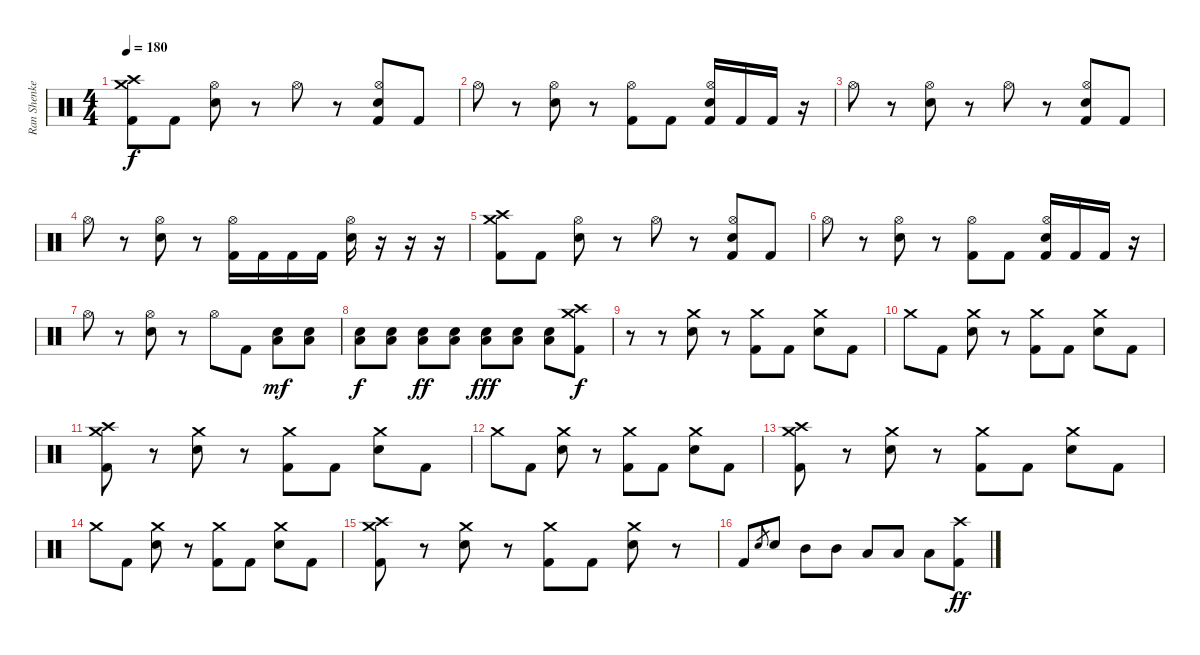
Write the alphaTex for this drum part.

\track ("Ran Shenkerman" "Ran Shenke") {instrument percussion}
\staff {score}
\articulation defaults
\ts (4 4)
\tempo 180
\clef neutral
\ks c
("Crash medium (hit)" "Crash high (hit)" "Kick (hit) 2").8{dy f} "Kick (hit) 2".8 ("Hi-Hat (open)" "Snare (hit) 2").8 r.8 "Hi-Hat (open)".8 r.8 ("Hi-Hat (open)" "Snare (hit) 2" "Kick (hit) 2").8 "Kick (hit) 2".8 |
"Hi-Hat (open)".8 r.8 ("Hi-Hat (open)" "Snare (hit) 2").8 r.8 ("Hi-Hat (open)" "Kick (hit) 2").8 "Kick (hit) 2".8 ("Hi-Hat (open)" "Snare (hit) 2" "Kick (hit) 2").16 "Kick (hit) 2".16 "Kick (hit) 2".16 r.16 |
"Hi-Hat (open)".8 r.8 ("Hi-Hat (open)" "Snare (hit) 2").8 r.8 "Hi-Hat (open)".8 r.8 ("Hi-Hat (open)" "Snare (hit) 2" "Kick (hit) 2").8 "Kick (hit) 2".8 |
"Hi-Hat (open)".8 r.8 ("Hi-Hat (open)" "Snare (hit) 2").8 r.8 ("Hi-Hat (open)" "Kick (hit) 2").16 "Kick (hit) 2".16 "Kick (hit) 2".16 "Kick (hit) 2".16 ("Hi-Hat (open)" "Snare (hit) 2").16 r.16 r.16 r.16 |
("Crash medium (hit)" "Crash high (hit)" "Kick (hit) 2").8 "Kick (hit) 2".8 ("Hi-Hat (open)" "Snare (hit) 2").8 r.8 "Hi-Hat (open)".8 r.8 ("Hi-Hat (open)" "Snare (hit) 2" "Kick (hit) 2").8 "Kick (hit) 2".8 |
"Hi-Hat (open)".8 r.8 ("Hi-Hat (open)" "Snare (hit) 2").8 r.8 ("Hi-Hat (open)" "Kick (hit) 2").8 "Kick (hit) 2".8 ("Hi-Hat (open)" "Snare (hit) 2" "Kick (hit) 2").16 "Kick (hit) 2".16 "Kick (hit) 2".16 r.16 |
"Hi-Hat (open)".8 r.8 ("Hi-Hat (open)" "Snare (hit) 2").8 r.8 "Hi-Hat (open)".8 "Kick (hit) 2".8 ("Snare (hit) 2" "Low Floor Tom (hit)").8{dy mf} ("Snare (hit) 2" "Low Floor Tom (hit)").8 |
("Snare (hit) 2" "Low Floor Tom (hit)").8{dy f} ("Snare (hit) 2" "Low Floor Tom (hit)").8 ("Snare (hit) 2" "Low Floor Tom (hit)").8{dy ff} ("Snare (hit) 2" "Low Floor Tom (hit)").8 ("Snare (hit) 2" "Low Floor Tom (hit)").8{dy fff} ("Snare (hit) 2" "Low Floor Tom (hit)").8 ("Snare (hit) 2" "Low Floor Tom (hit)").8 ("Crash medium (hit)" "Crash high (hit)" "Kick (hit) 2").8{dy f} |
r.8 r.8 ("Crash medium (hit)" "Snare (hit) 2").8 r.8 ("Crash medium (hit)" "Kick (hit) 2").8 "Kick (hit) 2".8 ("Crash medium (hit)" "Snare (hit) 2").8 "Kick (hit) 2".8 |
"Crash medium (hit)".8 "Kick (hit) 2".8 ("Crash medium (hit)" "Snare (hit) 2").8 r.8 ("Crash medium (hit)" "Kick (hit) 2").8 "Kick (hit) 2".8 ("Crash medium (hit)" "Snare (hit) 2").8 "Kick (hit) 2".8 |
("Crash medium (hit)" "Crash high (hit)" "Kick (hit) 2").8 r.8 ("Crash medium (hit)" "Snare (hit) 2").8 r.8 ("Crash medium (hit)" "Kick (hit) 2").8 "Kick (hit) 2".8 ("Crash medium (hit)" "Snare (hit) 2").8 "Kick (hit) 2".8 |
"Crash medium (hit)".8 "Kick (hit) 2".8 ("Crash medium (hit)" "Snare (hit) 2").8 r.8 ("Crash medium (hit)" "Kick (hit) 2").8 "Kick (hit) 2".8 ("Crash medium (hit)" "Snare (hit) 2").8 "Kick (hit) 2".8 |
("Crash medium (hit)" "Crash high (hit)" "Kick (hit) 2").8 r.8 ("Crash medium (hit)" "Snare (hit) 2").8 r.8 ("Crash medium (hit)" "Kick (hit) 2").8 "Kick (hit) 2".8 ("Crash medium (hit)" "Snare (hit) 2").8 "Kick (hit) 2".8 |
"Crash medium (hit)".8 "Kick (hit) 2".8 ("Crash medium (hit)" "Snare (hit) 2").8 r.8 ("Crash medium (hit)" "Kick (hit) 2").8 "Kick (hit) 2".8 ("Crash medium (hit)" "Snare (hit) 2").8 "Kick (hit) 2".8 |
("Crash medium (hit)" "Crash high (hit)" "Kick (hit) 2").8 r.8 ("Crash medium (hit)" "Snare (hit) 2").8 r.8 ("Crash medium (hit)" "Kick (hit) 2").8 "Kick (hit) 2".8 ("Crash medium (hit)" "Snare (hit) 2").8 r.8 |
"Kick (hit) 2".8 "Snare (hit) 2".8{gr} "Snare (hit) 2".8 "Mid Tom (hit)".8 "Mid Tom (hit)".8 "Low Tom (hit)".8 "Low Floor Tom (hit)".8 "Low Floor Tom (hit)".8 ("Crash high (hit)" "Kick (hit) 2").8{dy ff}
